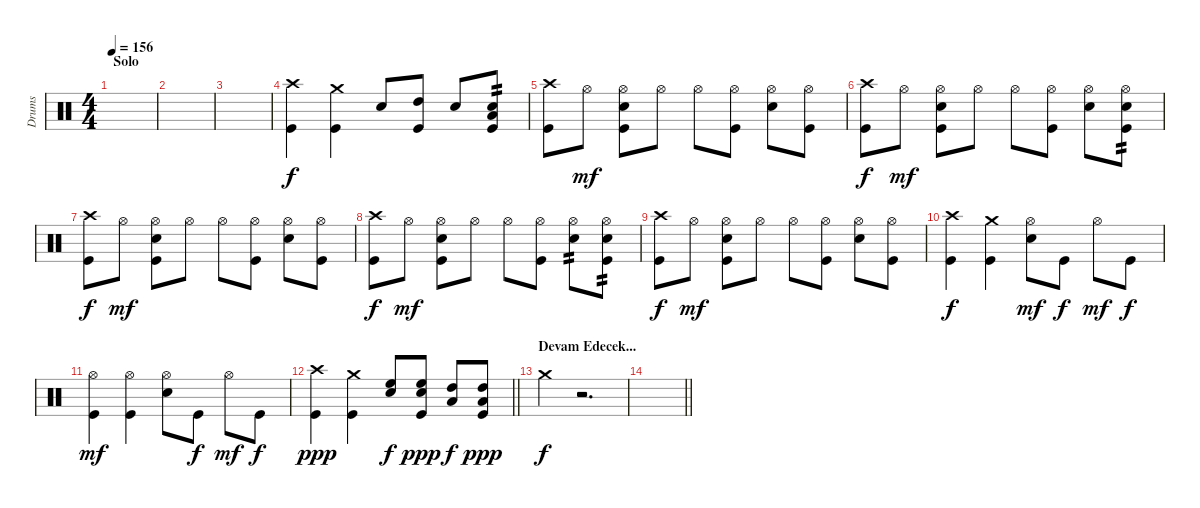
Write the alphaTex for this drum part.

\track ("Drums" "Drums") {instrument percussion}
\staff {score}
\articulation defaults
\ts (4 4)
\section ("" "Solo")
\tempo 156
\clef neutral
\ks c
|
|
|
("Crash high (hit)" "Kick (hit)").4 ("Crash medium (hit)" "Kick (hit)").4 "Snare (hit) 2".8 ("High Tom (hit)" "Kick (hit)").8 "Snare (hit) 2".8 ("Low Tom (hit)" "Snare (hit) 2" "Kick (hit)").8{tp 2} |
("Crash high (hit)" "Kick (hit)").8 "Hi-Hat (open)".8{dy mf} ("Hi-Hat (open)" "Snare (hit) 2" "Kick (hit)").8 "Hi-Hat (open)".8 "Hi-Hat (open)".8 ("Hi-Hat (open)" "Kick (hit)").8 ("Hi-Hat (open)" "Snare (hit) 2").8 ("Hi-Hat (open)" "Kick (hit)").8 |
("Crash high (hit)" "Kick (hit)").8{dy f} "Hi-Hat (open)".8{dy mf} ("Hi-Hat (open)" "Snare (hit) 2" "Kick (hit)").8 "Hi-Hat (open)".8 "Hi-Hat (open)".8 ("Hi-Hat (open)" "Kick (hit)").8 ("Hi-Hat (open)" "Snare (hit) 2").8 ("Hi-Hat (open)" "Snare (hit) 2" "Kick (hit)").8{tp 2} |
("Crash high (hit)" "Kick (hit)").8{dy f} "Hi-Hat (open)".8{dy mf} ("Hi-Hat (open)" "Snare (hit) 2" "Kick (hit)").8 "Hi-Hat (open)".8 "Hi-Hat (open)".8 ("Hi-Hat (open)" "Kick (hit)").8 ("Hi-Hat (open)" "Snare (hit) 2").8 ("Hi-Hat (open)" "Kick (hit)").8 |
("Crash high (hit)" "Kick (hit)").8{dy f} "Hi-Hat (open)".8{dy mf} ("Hi-Hat (open)" "Snare (hit) 2" "Kick (hit)").8 "Hi-Hat (open)".8 "Hi-Hat (open)".8 ("Hi-Hat (open)" "Kick (hit)").8 ("Hi-Hat (open)" "Snare (hit) 2").8{tp 2} ("Hi-Hat (open)" "Snare (hit) 2" "Kick (hit)").8{tp 2} |
("Crash high (hit)" "Kick (hit)").8{dy f} "Hi-Hat (open)".8{dy mf} ("Hi-Hat (open)" "Snare (hit) 2" "Kick (hit)").8 "Hi-Hat (open)".8 "Hi-Hat (open)".8 ("Hi-Hat (open)" "Kick (hit)").8 ("Hi-Hat (open)" "Snare (hit) 2").8 ("Hi-Hat (open)" "Kick (hit)").8 |
("Kick (hit)" "Crash high (hit)").4{dy f} ("Kick (hit)" "Crash medium (hit)").4 ("Snare (hit) 2" "Hi-Hat (open)").8{dy mf} "Kick (hit)".8{dy f} "Hi-Hat (open)".8{dy mf} "Kick (hit)".8{dy f} |
("Kick (hit)" "Hi-Hat (open)").4{dy mf} ("Kick (hit)" "Hi-Hat (open)").4 ("Snare (hit) 2" "Hi-Hat (open)").8 "Kick (hit)".8{dy f} "Hi-Hat (open)".8{dy mf} "Kick (hit)".8{dy f} |
\barLineRight lightlight
("Crash high (hit)" "Kick (hit)").4{dy ppp} ("Crash medium (hit)" "Kick (hit)").4 ("Snare (hit) 2" "High Floor Tom (hit)").8{dy f} ("Snare (hit) 2" "High Floor Tom (hit)" "Kick (hit)").8{dy ppp} ("High Tom (hit)" "Low Tom (hit)").8{dy f} ("High Tom (hit)" "Low Tom (hit)" "Kick (hit)").8{dy ppp} |
\section ("" "Devam Edecek...")
"Crash medium (hit)".4{dy f} r.2{d} |
\barLineRight lightlight
